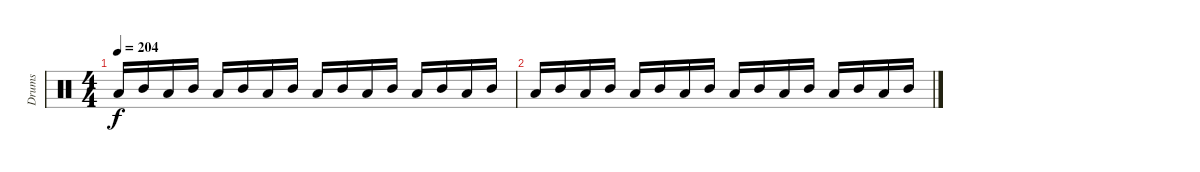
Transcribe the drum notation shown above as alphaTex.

\track ("Drums" "Drums") {instrument percussion}
\staff {score}
\articulation defaults
\ts (4 4)
\tempo 204
\clef neutral
\ks c "Low Tom (hit)".16{dy f} "Mid Tom (hit)".16 "Low Tom (hit)".16 "Mid Tom (hit)".16 "Low Tom (hit)".16 "Mid Tom (hit)".16 "Low Tom (hit)".16 "Mid Tom (hit)".16 "Low Tom (hit)".16 "Mid Tom (hit)".16 "Low Tom (hit)".16 "Mid Tom (hit)".16 "Low Tom (hit)".16 "Mid Tom (hit)".16 "Low Tom (hit)".16 "Mid Tom (hit)".16
|
"Low Tom (hit)".16 "Mid Tom (hit)".16 "Low Tom (hit)".16 "Mid Tom (hit)".16 "Low Tom (hit)".16 "Mid Tom (hit)".16 "Low Tom (hit)".16 "Mid Tom (hit)".16 "Low Tom (hit)".16 "Mid Tom (hit)".16 "Low Tom (hit)".16 "Mid Tom (hit)".16 "Low Tom (hit)".16 "Mid Tom (hit)".16 "Low Tom (hit)".16 "Mid Tom (hit)".16
